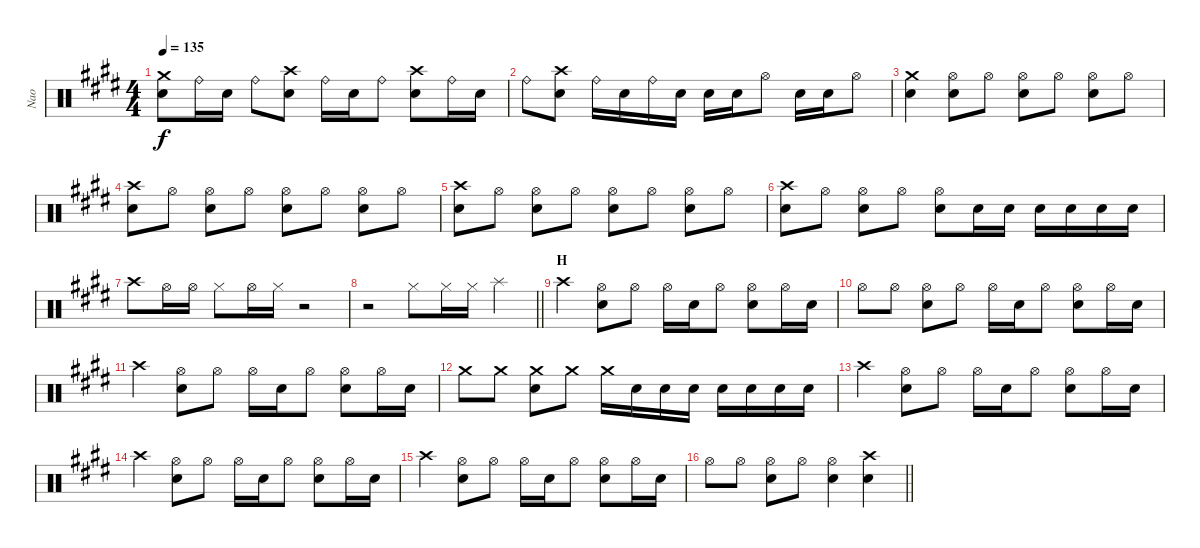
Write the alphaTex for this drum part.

\track ("Nao" "Nao") {instrument percussion}
\staff {score}
\articulation defaults
\ts (4 4)
\tempo 135
\clef neutral
\ks e
("Crash medium (hit)" "Snare (hit) 2").8{dy f} "Ride (bell)".16 "Snare (hit) 2".16 "Ride (bell)".8 ("Crash high (hit)" "Snare (hit) 2").8 "Ride (bell)".16 "Snare (hit) 2".16 "Ride (bell)".8 ("Crash high (hit)" "Snare (hit) 2").8 "Ride (bell)".16 "Snare (hit) 2".16 |
"Ride (bell)".8 ("Crash high (hit)" "Snare (hit) 2").8 "Ride (bell)".16 "Snare (hit) 2".16 "Ride (bell)".16 "Snare (hit) 2".16 "Snare (hit) 2".16 "Snare (hit) 2".16 "Hi-Hat (open)".8 "Snare (hit) 2".16 "Snare (hit) 2".16 "Hi-Hat (open)".8 |
("Crash medium (hit)" "Snare (hit) 2").4 ("Hi-Hat (open)" "Snare (hit) 2").8 "Hi-Hat (open)".8 ("Hi-Hat (open)" "Snare (hit) 2").8 "Hi-Hat (open)".8 ("Hi-Hat (open)" "Snare (hit) 2").8 "Hi-Hat (open)".8 |
("Crash high (hit)" "Snare (hit) 2").8 "Hi-Hat (open)".8 ("Hi-Hat (open)" "Snare (hit) 2").8 "Hi-Hat (open)".8 ("Hi-Hat (open)" "Snare (hit) 2").8 "Hi-Hat (open)".8 ("Hi-Hat (open)" "Snare (hit) 2").8 "Hi-Hat (open)".8 |
("Crash high (hit)" "Snare (hit) 2").8 "Hi-Hat (open)".8 ("Hi-Hat (open)" "Snare (hit) 2").8 "Hi-Hat (open)".8 ("Hi-Hat (open)" "Snare (hit) 2").8 "Hi-Hat (open)".8 ("Hi-Hat (open)" "Snare (hit) 2").8 "Hi-Hat (open)".8 |
("Crash high (hit)" "Snare (hit) 2").8 "Hi-Hat (open)".8 ("Hi-Hat (open)" "Snare (hit) 2").8 "Hi-Hat (open)".8 ("Hi-Hat (open)" "Snare (hit) 2").8 "Snare (hit) 2".16 "Snare (hit) 2".16 "Snare (hit) 2".16 "Snare (hit) 2".16 "Snare (hit) 2".16 "Snare (hit) 2".16 |
"Crash high (hit)".8 "Hi-Hat (open)".16 "Hi-Hat (open)".16 "Hi-Hat (closed)".8 "Hi-Hat (open)".16 "Hi-Hat (closed)".16 r.2 |
\barLineRight lightlight
r.2 "Hi-Hat (closed)".8 "Hi-Hat (closed)".16 "Hi-Hat (closed)".16 "Splash (hit)".4 |
\section ("" "H")
"Crash high (hit)".4 ("Hi-Hat (open)" "Snare (hit) 2").8 "Hi-Hat (open)".8 "Hi-Hat (open)".16 "Snare (hit) 2".16 "Hi-Hat (open)".8 ("Hi-Hat (open)" "Snare (hit) 2").8 "Hi-Hat (open)".16 "Snare (hit) 2".16 |
"Hi-Hat (open)".8 "Hi-Hat (open)".8 ("Hi-Hat (open)" "Snare (hit) 2").8 "Hi-Hat (open)".8 "Hi-Hat (open)".16 "Snare (hit) 2".16 "Hi-Hat (open)".8 ("Hi-Hat (open)" "Snare (hit) 2").8 "Hi-Hat (open)".16 "Snare (hit) 2".16 |
"Crash high (hit)".4 ("Hi-Hat (open)" "Snare (hit) 2").8 "Hi-Hat (open)".8 "Hi-Hat (open)".16 "Snare (hit) 2".16 "Hi-Hat (open)".8 ("Hi-Hat (open)" "Snare (hit) 2").8 "Hi-Hat (open)".16 "Snare (hit) 2".16 |
"Crash medium (hit)".8 "Crash medium (hit)".8 ("Crash medium (hit)" "Snare (hit) 2").8 "Crash medium (hit)".8 "Crash medium (hit)".16 "Snare (hit) 2".16 "Snare (hit) 2".16 "Snare (hit) 2".16 "Snare (hit) 2".16 "Snare (hit) 2".16 "Snare (hit) 2".16 "Snare (hit) 2".16 |
"Crash high (hit)".4 ("Hi-Hat (open)" "Snare (hit) 2").8 "Hi-Hat (open)".8 "Hi-Hat (open)".16 "Snare (hit) 2".16 "Hi-Hat (open)".8 ("Hi-Hat (open)" "Snare (hit) 2").8 "Hi-Hat (open)".16 "Snare (hit) 2".16 |
"Crash high (hit)".4 ("Hi-Hat (open)" "Snare (hit) 2").8 "Hi-Hat (open)".8 "Hi-Hat (open)".16 "Snare (hit) 2".16 "Hi-Hat (open)".8 ("Hi-Hat (open)" "Snare (hit) 2").8 "Hi-Hat (open)".16 "Snare (hit) 2".16 |
"Crash high (hit)".4 ("Hi-Hat (open)" "Snare (hit) 2").8 "Hi-Hat (open)".8 "Hi-Hat (open)".16 "Snare (hit) 2".16 "Hi-Hat (open)".8 ("Hi-Hat (open)" "Snare (hit) 2").8 "Hi-Hat (open)".16 "Snare (hit) 2".16 |
\barLineRight lightlight "Hi-Hat (open)".8 "Hi-Hat (open)".8
("Hi-Hat (open)" "Snare (hit) 2").8 "Hi-Hat (open)".8 ("Hi-Hat (open)" "Snare (hit) 2").4 ("Crash high (hit)" "Snare (hit) 2").4
